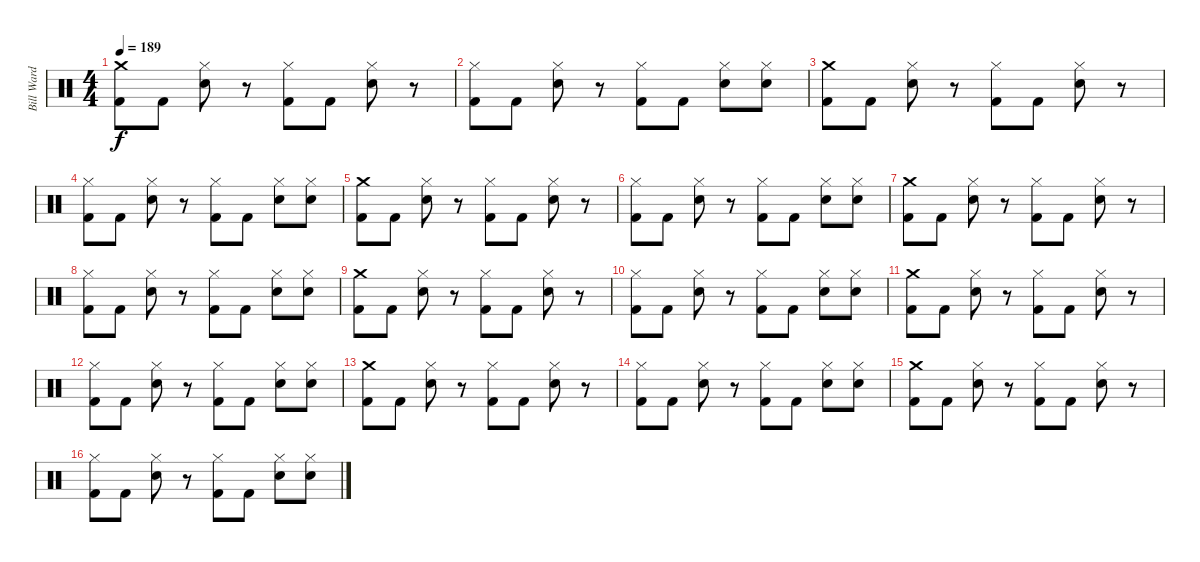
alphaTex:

\track ("Bill Ward" "Bill Ward") {instrument percussion}
\staff {score}
\articulation defaults
\ts (4 4)
\tempo 189
\clef neutral
\ks c
("Kick (hit) 2" "Crash medium (hit)").8{dy f} "Kick (hit) 2".8 ("Hi-Hat (closed)" "Electric Snare (hit)").8 r.8 ("Kick (hit) 2" "Hi-Hat (closed)").8 "Kick (hit) 2".8 ("Hi-Hat (closed)" "Electric Snare (hit)").8 r.8 |
("Hi-Hat (closed)" "Kick (hit) 2").8 "Kick (hit) 2".8 ("Electric Snare (hit)" "Hi-Hat (closed)").8 r.8 ("Hi-Hat (closed)" "Kick (hit) 2").8 "Kick (hit) 2".8 ("Hi-Hat (closed)" "Electric Snare (hit)").8 ("Hi-Hat (closed)" "Electric Snare (hit)").8 |
("Crash medium (hit)" "Kick (hit) 2").8 "Kick (hit) 2".8 ("Electric Snare (hit)" "Hi-Hat (closed)").8 r.8 ("Kick (hit) 2" "Hi-Hat (closed)").8 "Kick (hit) 2".8 ("Hi-Hat (closed)" "Electric Snare (hit)").8 r.8 |
("Hi-Hat (closed)" "Kick (hit) 2").8 "Kick (hit) 2".8 ("Electric Snare (hit)" "Hi-Hat (closed)").8 r.8 ("Hi-Hat (closed)" "Kick (hit) 2").8 "Kick (hit) 2".8 ("Electric Snare (hit)" "Hi-Hat (closed)").8 ("Electric Snare (hit)" "Hi-Hat (closed)").8 |
("Crash medium (hit)" "Kick (hit) 2").8 "Kick (hit) 2".8 ("Hi-Hat (closed)" "Electric Snare (hit)").8 r.8 ("Hi-Hat (closed)" "Kick (hit) 2").8 "Kick (hit) 2".8 ("Electric Snare (hit)" "Hi-Hat (closed)").8 r.8 |
("Kick (hit) 2" "Hi-Hat (closed)").8 "Kick (hit) 2".8 ("Hi-Hat (closed)" "Electric Snare (hit)").8 r.8 ("Hi-Hat (closed)" "Kick (hit) 2").8 "Kick (hit) 2".8 ("Hi-Hat (closed)" "Electric Snare (hit)").8 ("Electric Snare (hit)" "Hi-Hat (closed)").8 |
("Crash medium (hit)" "Kick (hit) 2").8 "Kick (hit) 2".8 ("Hi-Hat (closed)" "Electric Snare (hit)").8 r.8 ("Kick (hit) 2" "Hi-Hat (closed)").8 "Kick (hit) 2".8 ("Electric Snare (hit)" "Hi-Hat (closed)").8 r.8 |
("Kick (hit) 2" "Hi-Hat (closed)").8 "Kick (hit) 2".8 ("Electric Snare (hit)" "Hi-Hat (closed)").8 r.8 ("Hi-Hat (closed)" "Kick (hit) 2").8 "Kick (hit) 2".8 ("Hi-Hat (closed)" "Electric Snare (hit)").8 ("Hi-Hat (closed)" "Electric Snare (hit)").8 |
("Kick (hit) 2" "Crash medium (hit)").8 "Kick (hit) 2".8 ("Hi-Hat (closed)" "Electric Snare (hit)").8 r.8 ("Kick (hit) 2" "Hi-Hat (closed)").8 "Kick (hit) 2".8 ("Hi-Hat (closed)" "Electric Snare (hit)").8 r.8 |
("Hi-Hat (closed)" "Kick (hit) 2").8 "Kick (hit) 2".8 ("Hi-Hat (closed)" "Electric Snare (hit)").8 r.8 ("Hi-Hat (closed)" "Kick (hit) 2").8 "Kick (hit) 2".8 ("Electric Snare (hit)" "Hi-Hat (closed)").8 ("Hi-Hat (closed)" "Electric Snare (hit)").8 |
("Kick (hit) 2" "Crash medium (hit)").8 "Kick (hit) 2".8 ("Hi-Hat (closed)" "Electric Snare (hit)").8 r.8 ("Kick (hit) 2" "Hi-Hat (closed)").8 "Kick (hit) 2".8 ("Hi-Hat (closed)" "Electric Snare (hit)").8 r.8 |
("Hi-Hat (closed)" "Kick (hit) 2").8 "Kick (hit) 2".8 ("Hi-Hat (closed)" "Electric Snare (hit)").8 r.8 ("Hi-Hat (closed)" "Kick (hit) 2").8 "Kick (hit) 2".8 ("Electric Snare (hit)" "Hi-Hat (closed)").8 ("Hi-Hat (closed)" "Electric Snare (hit)").8 |
("Kick (hit) 2" "Crash medium (hit)").8 "Kick (hit) 2".8 ("Hi-Hat (closed)" "Electric Snare (hit)").8 r.8 ("Kick (hit) 2" "Hi-Hat (closed)").8 "Kick (hit) 2".8 ("Hi-Hat (closed)" "Electric Snare (hit)").8 r.8 |
("Hi-Hat (closed)" "Kick (hit) 2").8 "Kick (hit) 2".8 ("Hi-Hat (closed)" "Electric Snare (hit)").8 r.8 ("Hi-Hat (closed)" "Kick (hit) 2").8 "Kick (hit) 2".8 ("Electric Snare (hit)" "Hi-Hat (closed)").8 ("Hi-Hat (closed)" "Electric Snare (hit)").8 |
("Kick (hit) 2" "Crash medium (hit)").8 "Kick (hit) 2".8 ("Hi-Hat (closed)" "Electric Snare (hit)").8 r.8 ("Kick (hit) 2" "Hi-Hat (closed)").8 "Kick (hit) 2".8 ("Hi-Hat (closed)" "Electric Snare (hit)").8 r.8 |
("Hi-Hat (closed)" "Kick (hit) 2").8 "Kick (hit) 2".8 ("Hi-Hat (closed)" "Electric Snare (hit)").8 r.8 ("Hi-Hat (closed)" "Kick (hit) 2").8 "Kick (hit) 2".8 ("Electric Snare (hit)" "Hi-Hat (closed)").8 ("Hi-Hat (closed)" "Electric Snare (hit)").8
